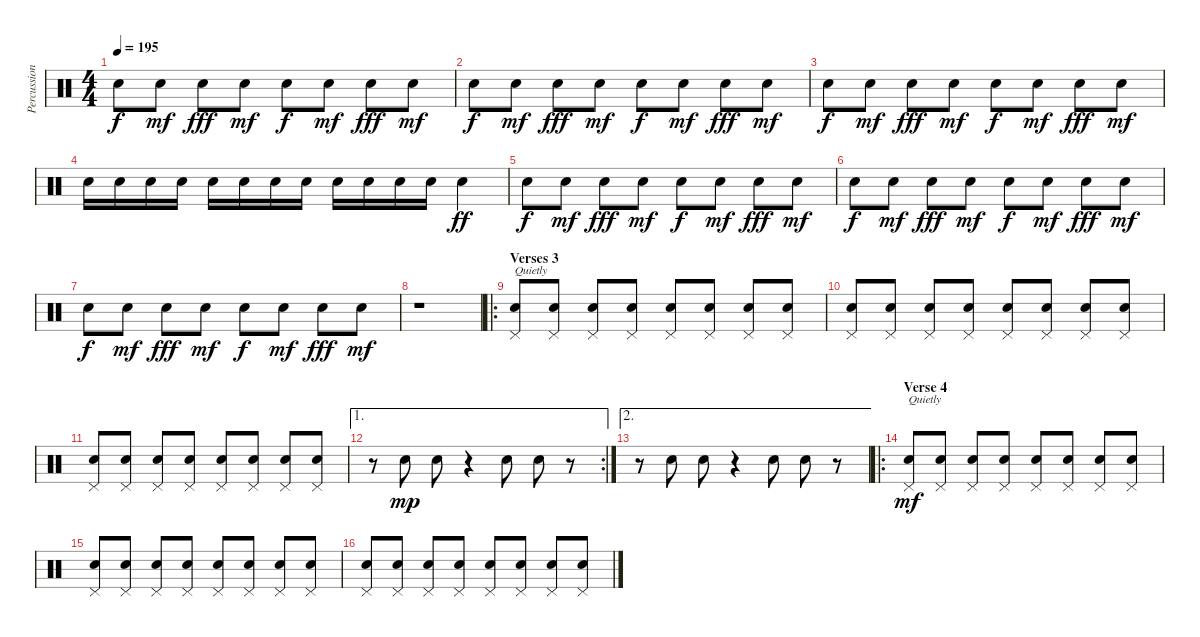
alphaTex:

\track ("Percussion" "Percussion") {instrument percussion}
\staff {score}
\articulation defaults
\ts (4 4)
\tempo 195
\clef neutral
\ks c "Snare (hit) 2".8{dy f} "Snare (hit) 2".8{dy mf} "Snare (hit) 2".8{dy fff} "Snare (hit) 2".8{dy mf} "Snare (hit) 2".8{dy f} "Snare (hit) 2".8{dy mf} "Snare (hit) 2".8{dy fff} "Snare (hit) 2".8{dy mf}
|
"Snare (hit) 2".8{dy f} "Snare (hit) 2".8{dy mf} "Snare (hit) 2".8{dy fff} "Snare (hit) 2".8{dy mf} "Snare (hit) 2".8{dy f} "Snare (hit) 2".8{dy mf} "Snare (hit) 2".8{dy fff} "Snare (hit) 2".8{dy mf} |
"Snare (hit) 2".8{dy f} "Snare (hit) 2".8{dy mf} "Snare (hit) 2".8{dy fff} "Snare (hit) 2".8{dy mf} "Snare (hit) 2".8{dy f} "Snare (hit) 2".8{dy mf} "Snare (hit) 2".8{dy fff} "Snare (hit) 2".8{dy mf} |
"Snare (hit) 2".16 "Snare (hit) 2".16 "Snare (hit) 2".16 "Snare (hit) 2".16 "Snare (hit) 2".16 "Snare (hit) 2".16 "Snare (hit) 2".16 "Snare (hit) 2".16 "Snare (hit) 2".16 "Snare (hit) 2".16 "Snare (hit) 2".16 "Snare (hit) 2".16 "Snare (hit) 2".4{dy ff} |
"Snare (hit) 2".8{dy f} "Snare (hit) 2".8{dy mf} "Snare (hit) 2".8{dy fff} "Snare (hit) 2".8{dy mf} "Snare (hit) 2".8{dy f} "Snare (hit) 2".8{dy mf} "Snare (hit) 2".8{dy fff} "Snare (hit) 2".8{dy mf} |
"Snare (hit) 2".8{dy f} "Snare (hit) 2".8{dy mf} "Snare (hit) 2".8{dy fff} "Snare (hit) 2".8{dy mf} "Snare (hit) 2".8{dy f} "Snare (hit) 2".8{dy mf} "Snare (hit) 2".8{dy fff} "Snare (hit) 2".8{dy mf} |
"Snare (hit) 2".8{dy f} "Snare (hit) 2".8{dy mf} "Snare (hit) 2".8{dy fff} "Snare (hit) 2".8{dy mf} "Snare (hit) 2".8{dy f} "Snare (hit) 2".8{dy mf} "Snare (hit) 2".8{dy fff} "Snare (hit) 2".8{dy mf} |
r.1 |
\ro
\section ("" "Verses 3")
("Snare (hit) 2" "Pedal Hi-Hat (hit)").8{txt "Quietly" volume 5} ("Snare (hit) 2" "Pedal Hi-Hat (hit)").8 ("Snare (hit) 2" "Pedal Hi-Hat (hit)").8 ("Snare (hit) 2" "Pedal Hi-Hat (hit)").8 ("Snare (hit) 2" "Pedal Hi-Hat (hit)").8 ("Snare (hit) 2" "Pedal Hi-Hat (hit)").8 ("Snare (hit) 2" "Pedal Hi-Hat (hit)").8 ("Snare (hit) 2" "Pedal Hi-Hat (hit)").8 |
("Snare (hit) 2" "Pedal Hi-Hat (hit)").8 ("Snare (hit) 2" "Pedal Hi-Hat (hit)").8 ("Snare (hit) 2" "Pedal Hi-Hat (hit)").8 ("Snare (hit) 2" "Pedal Hi-Hat (hit)").8 ("Snare (hit) 2" "Pedal Hi-Hat (hit)").8 ("Snare (hit) 2" "Pedal Hi-Hat (hit)").8 ("Snare (hit) 2" "Pedal Hi-Hat (hit)").8 ("Snare (hit) 2" "Pedal Hi-Hat (hit)").8 |
("Snare (hit) 2" "Pedal Hi-Hat (hit)").8 ("Snare (hit) 2" "Pedal Hi-Hat (hit)").8 ("Snare (hit) 2" "Pedal Hi-Hat (hit)").8 ("Snare (hit) 2" "Pedal Hi-Hat (hit)").8 ("Snare (hit) 2" "Pedal Hi-Hat (hit)").8 ("Snare (hit) 2" "Pedal Hi-Hat (hit)").8 ("Snare (hit) 2" "Pedal Hi-Hat (hit)").8 ("Snare (hit) 2" "Pedal Hi-Hat (hit)").8 |
\ae 1
\rc 2
r.8 "Snare (hit) 2".8{dy mp} "Snare (hit) 2".8 r.4 "Snare (hit) 2".8 "Snare (hit) 2".8 r.8 |
\ae 2
r.8 "Snare (hit) 2".8 "Snare (hit) 2".8 r.4 "Snare (hit) 2".8 "Snare (hit) 2".8 r.8 |
\ro
\section ("" "Verse 4")
("Snare (hit) 2" "Pedal Hi-Hat (hit)").8{txt "Quietly" dy mf volume 5} ("Snare (hit) 2" "Pedal Hi-Hat (hit)").8 ("Snare (hit) 2" "Pedal Hi-Hat (hit)").8 ("Snare (hit) 2" "Pedal Hi-Hat (hit)").8 ("Snare (hit) 2" "Pedal Hi-Hat (hit)").8 ("Snare (hit) 2" "Pedal Hi-Hat (hit)").8 ("Snare (hit) 2" "Pedal Hi-Hat (hit)").8 ("Snare (hit) 2" "Pedal Hi-Hat (hit)").8 |
("Snare (hit) 2" "Pedal Hi-Hat (hit)").8 ("Snare (hit) 2" "Pedal Hi-Hat (hit)").8 ("Snare (hit) 2" "Pedal Hi-Hat (hit)").8 ("Snare (hit) 2" "Pedal Hi-Hat (hit)").8 ("Snare (hit) 2" "Pedal Hi-Hat (hit)").8 ("Snare (hit) 2" "Pedal Hi-Hat (hit)").8 ("Snare (hit) 2" "Pedal Hi-Hat (hit)").8 ("Snare (hit) 2" "Pedal Hi-Hat (hit)").8 |
("Snare (hit) 2" "Pedal Hi-Hat (hit)").8 ("Snare (hit) 2" "Pedal Hi-Hat (hit)").8 ("Snare (hit) 2" "Pedal Hi-Hat (hit)").8 ("Snare (hit) 2" "Pedal Hi-Hat (hit)").8 ("Snare (hit) 2" "Pedal Hi-Hat (hit)").8 ("Snare (hit) 2" "Pedal Hi-Hat (hit)").8 ("Snare (hit) 2" "Pedal Hi-Hat (hit)").8 ("Snare (hit) 2" "Pedal Hi-Hat (hit)").8
